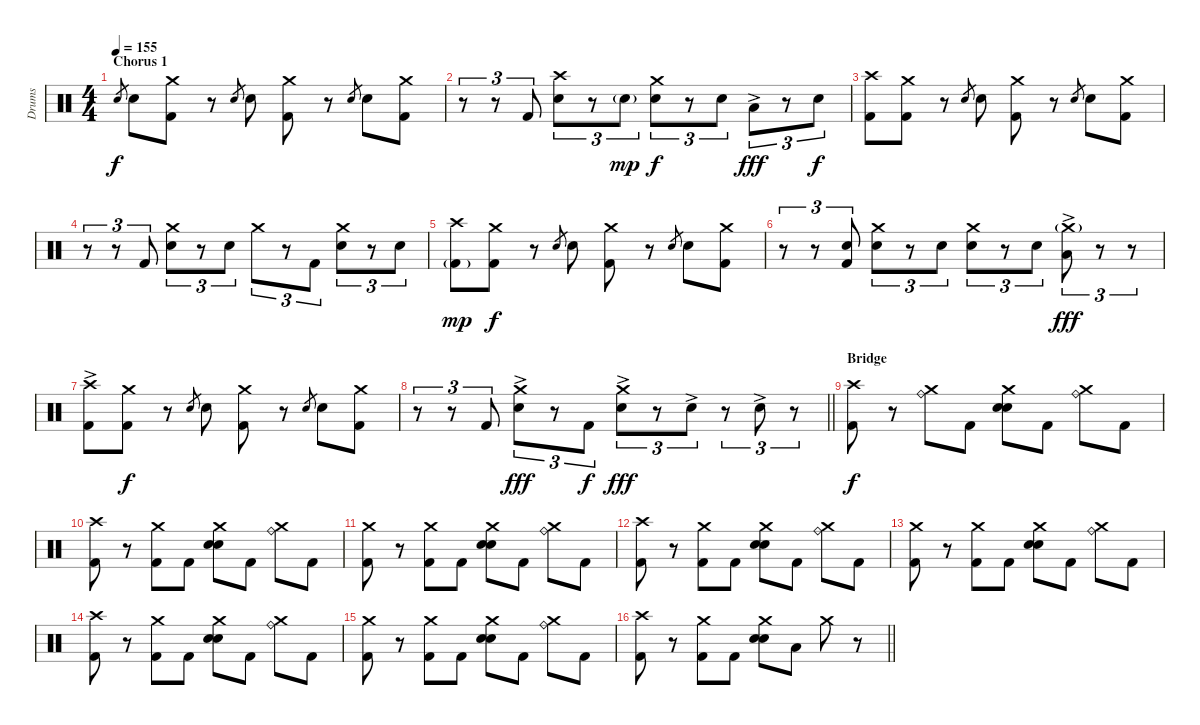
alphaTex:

\track ("Drums" "Drums") {instrument percussion}
\staff {score}
\articulation defaults
\ts (4 4)
\section ("" "Chorus 1")
\tempo 155
\clef neutral
\ks c "Snare (hit) 2".8{gr dy f} "Electric Snare (hit)".8
("Crash medium (hit)" "Kick (hit) 2").8 r.8 "Snare (hit) 2".8{gr} "Electric Snare (hit)".8 ("Crash medium (hit)" "Kick (hit) 2").8 r.8 "Snare (hit) 2".8{gr} "Electric Snare (hit)".8 ("Crash medium (hit)" "Kick (hit) 2").8 |
r.8{tu (3 2)} r.8{tu (3 2)} "Kick (hit) 2".8{tu (3 2)} ("Crash high (hit)" "Electric Snare (hit)").8{tu (3 2)} r.8{tu (3 2)} "Electric Snare (hit)"{g}.8{tu (3 2) dy mp} ("Crash medium (hit)" "Electric Snare (hit)").8{tu (3 2) dy f} r.8{tu (3 2)} "Electric Snare (hit)".8{tu (3 2)} "Low Floor Tom (hit)"{ac}.8{tu (3 2) dy fff} r.8{tu (3 2)} "Electric Snare (hit)".8{tu (3 2) dy f} |
("Crash high (hit)" "Kick (hit) 2").8 ("Crash medium (hit)" "Kick (hit) 2").8 r.8 "Snare (hit) 2".8{gr} "Electric Snare (hit)".8 ("Crash medium (hit)" "Kick (hit) 2").8 r.8 "Snare (hit) 2".8{gr} "Electric Snare (hit)".8 ("Crash medium (hit)" "Kick (hit) 2").8 |
r.8{tu (3 2)} r.8{tu (3 2)} "Kick (hit) 2".8{tu (3 2)} ("Crash medium (hit)" "Electric Snare (hit)").8{tu (3 2)} r.8{tu (3 2)} "Electric Snare (hit)".8{tu (3 2)} "Crash medium (hit)".8{tu (3 2)} r.8{tu (3 2)} "Kick (hit) 2".8{tu (3 2)} ("Crash medium (hit)" "Electric Snare (hit)").8{tu (3 2)} r.8{tu (3 2)} "Electric Snare (hit)".8{tu (3 2)} |
("Crash high (hit)" "Kick (hit) 2"{g}).8{dy mp} ("Crash medium (hit)" "Kick (hit) 2").8{dy f} r.8 "Snare (hit) 2".8{gr} "Electric Snare (hit)".8 ("Crash medium (hit)" "Kick (hit) 2").8 r.8 "Snare (hit) 2".8{gr} "Electric Snare (hit)".8 ("Crash medium (hit)" "Kick (hit) 2").8 |
r.8{tu (3 2)} r.8{tu (3 2)} ("Electric Snare (hit)" "Kick (hit) 2").8{tu (3 2)} ("Crash medium (hit)" "Electric Snare (hit)").8{tu (3 2)} r.8{tu (3 2)} "Electric Snare (hit)".8{tu (3 2)} ("Crash medium (hit)" "Electric Snare (hit)").8{tu (3 2)} r.8{tu (3 2)} "Electric Snare (hit)".8{tu (3 2)} ("Crash medium (hit)"{g} "Low Floor Tom (hit)"{ac}).8{tu (3 2) dy fff} r.8{tu (3 2)} r.8{tu (3 2)} |
("Crash high (hit)" "Kick (hit) 2"{ac}).8 ("Crash medium (hit)" "Kick (hit) 2").8{dy f} r.8 "Snare (hit) 2".8{gr} "Electric Snare (hit)".8 ("Crash medium (hit)" "Kick (hit) 2").8 r.8 "Snare (hit) 2".8{gr} "Electric Snare (hit)".8 ("Crash medium (hit)" "Kick (hit) 2").8 |
\barLineRight lightlight
r.8{tu (3 2)} r.8{tu (3 2)} "Kick (hit) 2".8{tu (3 2)} ("Crash medium (hit)" "Electric Snare (hit)"{ac}).8{tu (3 2) dy fff} r.8{tu (3 2)} "Kick (hit) 2".8{tu (3 2) dy f} ("Crash medium (hit)" "Electric Snare (hit)"{ac}).8{tu (3 2) dy fff} r.8{tu (3 2)} "Electric Snare (hit)"{ac}.8{tu (3 2)} r.8{tu (3 2)} "Electric Snare (hit)"{ac}.8{tu (3 2)} r.8{tu (3 2)} |
\section ("" "Bridge")
("Crash high (hit)" "Kick (hit) 2").8{dy f} r.8 ("Crash medium (hit)" "Ride (bell)").8 "Kick (hit) 2".8 ("Crash medium (hit)" "Snare (hit) 2" "Electric Snare (hit)").8 "Kick (hit) 2".8 ("Crash medium (hit)" "Ride (bell)").8 "Kick (hit) 2".8 |
("Crash high (hit)" "Kick (hit) 2").8 r.8 ("Crash medium (hit)" "Kick (hit) 2").8 "Kick (hit) 2".8 ("Crash medium (hit)" "Snare (hit) 2" "Electric Snare (hit)").8 "Kick (hit) 2".8 ("Crash medium (hit)" "Ride (bell)").8 "Kick (hit) 2".8 |
("Crash medium (hit)" "Kick (hit) 2").8 r.8 ("Crash medium (hit)" "Kick (hit) 2").8 "Kick (hit) 2".8 ("Crash medium (hit)" "Snare (hit) 2" "Electric Snare (hit)").8 "Kick (hit) 2".8 ("Crash medium (hit)" "Ride (bell)").8 "Kick (hit) 2".8 |
("Crash high (hit)" "Kick (hit) 2").8 r.8 ("Crash medium (hit)" "Kick (hit) 2").8 "Kick (hit) 2".8 ("Crash medium (hit)" "Snare (hit) 2" "Electric Snare (hit)").8 "Kick (hit) 2".8 ("Crash medium (hit)" "Ride (bell)").8 "Kick (hit) 2".8 |
("Crash medium (hit)" "Kick (hit) 2").8 r.8 ("Crash medium (hit)" "Kick (hit) 2").8 "Kick (hit) 2".8 ("Crash medium (hit)" "Snare (hit) 2" "Electric Snare (hit)").8 "Kick (hit) 2".8 ("Crash medium (hit)" "Ride (bell)").8 "Kick (hit) 2".8 |
("Crash high (hit)" "Kick (hit) 2").8 r.8 ("Crash medium (hit)" "Kick (hit) 2").8 "Kick (hit) 2".8 ("Crash medium (hit)" "Snare (hit) 2" "Electric Snare (hit)").8 "Kick (hit) 2".8 ("Crash medium (hit)" "Ride (bell)").8 "Kick (hit) 2".8 |
("Crash medium (hit)" "Kick (hit) 2").8 r.8 ("Crash medium (hit)" "Kick (hit) 2").8 "Kick (hit) 2".8 ("Crash medium (hit)" "Snare (hit) 2" "Electric Snare (hit)").8 "Kick (hit) 2".8 ("Crash medium (hit)" "Ride (bell)").8 "Kick (hit) 2".8 |
\barLineRight lightlight
("Crash high (hit)" "Kick (hit) 2").8 r.8 ("Crash medium (hit)" "Kick (hit) 2").8 "Kick (hit) 2".8 ("Crash medium (hit)" "Snare (hit) 2" "Electric Snare (hit)").8 "Low Floor Tom (hit)".8 "Crash medium (hit)".8 r.8
